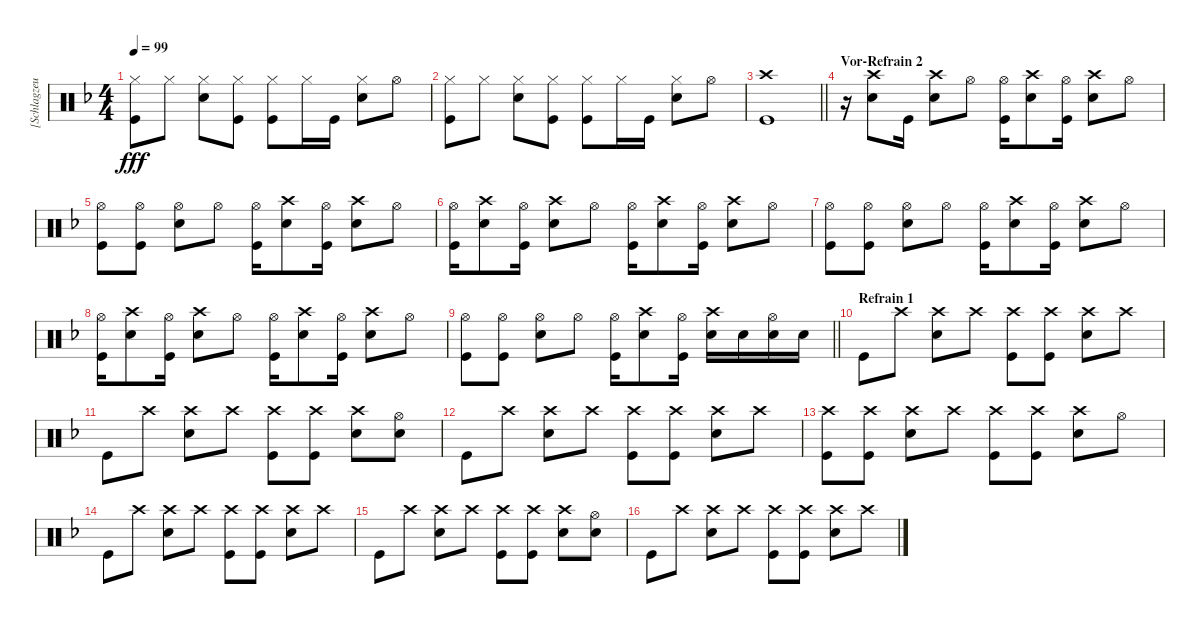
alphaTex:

\track ("[Schlagzeug]" "[Schlagzeu") {instrument percussion}
\staff {score}
\articulation defaults
\ts (4 4)
\tempo 99
\clef neutral
\ks dminor
("Hi-Hat (closed)" "Kick (hit)").8{dy fff} "Hi-Hat (closed)".8 ("Hi-Hat (closed)" "Electric Snare (hit)").8 ("Hi-Hat (closed)" "Kick (hit)").8 ("Hi-Hat (closed)" "Kick (hit)").8 "Hi-Hat (closed)".16 "Kick (hit)".16 ("Hi-Hat (closed)" "Electric Snare (hit)").8 "Hi-Hat (open)".8 |
("Hi-Hat (closed)" "Kick (hit)").8 "Hi-Hat (closed)".8 ("Hi-Hat (closed)" "Electric Snare (hit)").8 ("Hi-Hat (closed)" "Kick (hit)").8 ("Hi-Hat (closed)" "Kick (hit)").8 "Hi-Hat (closed)".16 "Kick (hit)".16 ("Hi-Hat (closed)" "Electric Snare (hit)").8 "Hi-Hat (open)".8 |
\barLineRight lightlight
("Crash high (hit)" "Kick (hit)").1 |
\section ("" "Vor-Refrain 2")
r.16 ("Crash high (hit)" "Electric Snare (hit)").8 "Kick (hit)".16 ("Crash high (hit)" "Electric Snare (hit)").8 "Hi-Hat (open)".8 ("Hi-Hat (open)" "Kick (hit)").16 ("Crash high (hit)" "Electric Snare (hit)").8 ("Hi-Hat (open)" "Kick (hit)").16 ("Crash high (hit)" "Electric Snare (hit)").8 "Hi-Hat (open)".8 |
("Hi-Hat (open)" "Kick (hit)").8 ("Hi-Hat (open)" "Kick (hit)").8 ("Hi-Hat (open)" "Electric Snare (hit)").8 "Hi-Hat (open)".8 ("Hi-Hat (open)" "Kick (hit)").16 ("Crash high (hit)" "Electric Snare (hit)").8 ("Hi-Hat (open)" "Kick (hit)").16 ("Crash high (hit)" "Electric Snare (hit)").8 "Hi-Hat (open)".8 |
("Hi-Hat (open)" "Kick (hit)").16 ("Crash high (hit)" "Electric Snare (hit)").8 ("Hi-Hat (open)" "Kick (hit)").16 ("Crash high (hit)" "Electric Snare (hit)").8 "Hi-Hat (open)".8 ("Hi-Hat (open)" "Kick (hit)").16 ("Crash high (hit)" "Electric Snare (hit)").8 ("Hi-Hat (open)" "Kick (hit)").16 ("Crash high (hit)" "Electric Snare (hit)").8 "Hi-Hat (open)".8 |
("Hi-Hat (open)" "Kick (hit)").8 ("Hi-Hat (open)" "Kick (hit)").8 ("Hi-Hat (open)" "Electric Snare (hit)").8 "Hi-Hat (open)".8 ("Hi-Hat (open)" "Kick (hit)").16 ("Crash high (hit)" "Electric Snare (hit)").8 ("Hi-Hat (open)" "Kick (hit)").16 ("Crash high (hit)" "Electric Snare (hit)").8 "Hi-Hat (open)".8 |
("Hi-Hat (open)" "Kick (hit)").16 ("Crash high (hit)" "Electric Snare (hit)").8 ("Hi-Hat (open)" "Kick (hit)").16 ("Crash high (hit)" "Electric Snare (hit)").8 "Hi-Hat (open)".8 ("Hi-Hat (open)" "Kick (hit)").16 ("Crash high (hit)" "Electric Snare (hit)").8 ("Hi-Hat (open)" "Kick (hit)").16 ("Crash high (hit)" "Electric Snare (hit)").8 "Hi-Hat (open)".8 |
\barLineRight lightlight
("Hi-Hat (open)" "Kick (hit)").8 ("Hi-Hat (open)" "Kick (hit)").8 ("Hi-Hat (open)" "Electric Snare (hit)").8 "Hi-Hat (open)".8 ("Hi-Hat (open)" "Kick (hit)").16 ("Crash high (hit)" "Electric Snare (hit)").8 ("Hi-Hat (open)" "Kick (hit)").16 ("Crash high (hit)" "Electric Snare (hit)").16 "Electric Snare (hit)".16 ("Hi-Hat (open)" "Electric Snare (hit)").16 "Electric Snare (hit)".16 |
\section ("" "Refrain 1")
"Kick (hit)".8 "Crash high (hit)".8 ("Crash high (hit)" "Electric Snare (hit)").8 "Crash high (hit)".8 ("Crash high (hit)" "Kick (hit)").8 ("Crash high (hit)" "Kick (hit)").8 ("Crash high (hit)" "Electric Snare (hit)").8 "Crash high (hit)".8 |
"Kick (hit)".8 "Crash high (hit)".8 ("Crash high (hit)" "Electric Snare (hit)").8 "Crash high (hit)".8 ("Crash high (hit)" "Kick (hit)").8 ("Crash high (hit)" "Kick (hit)").8 ("Crash high (hit)" "Electric Snare (hit)").8 ("Hi-Hat (open)" "Electric Snare (hit)").8 |
"Kick (hit)".8 "Crash high (hit)".8 ("Crash high (hit)" "Electric Snare (hit)").8 "Crash high (hit)".8 ("Crash high (hit)" "Kick (hit)").8 ("Crash high (hit)" "Kick (hit)").8 ("Crash high (hit)" "Electric Snare (hit)").8 "Crash high (hit)".8 |
("Crash high (hit)" "Kick (hit)").8 ("Crash high (hit)" "Kick (hit)").8 ("Crash high (hit)" "Electric Snare (hit)").8 "Crash high (hit)".8 ("Crash high (hit)" "Kick (hit)").8 ("Crash high (hit)" "Kick (hit)").8 ("Crash high (hit)" "Electric Snare (hit)").8 "Hi-Hat (open)".8 |
"Kick (hit)".8 "Crash high (hit)".8 ("Crash high (hit)" "Electric Snare (hit)").8 "Crash high (hit)".8 ("Crash high (hit)" "Kick (hit)").8 ("Crash high (hit)" "Kick (hit)").8 ("Crash high (hit)" "Electric Snare (hit)").8 "Crash high (hit)".8 |
"Kick (hit)".8 "Crash high (hit)".8 ("Crash high (hit)" "Electric Snare (hit)").8 "Crash high (hit)".8 ("Crash high (hit)" "Kick (hit)").8 ("Crash high (hit)" "Kick (hit)").8 ("Crash high (hit)" "Electric Snare (hit)").8 ("Hi-Hat (open)" "Electric Snare (hit)").8 |
"Kick (hit)".8 "Crash high (hit)".8 ("Crash high (hit)" "Electric Snare (hit)").8 "Crash high (hit)".8 ("Crash high (hit)" "Kick (hit)").8 ("Crash high (hit)" "Kick (hit)").8 ("Crash high (hit)" "Electric Snare (hit)").8 "Crash high (hit)".8
